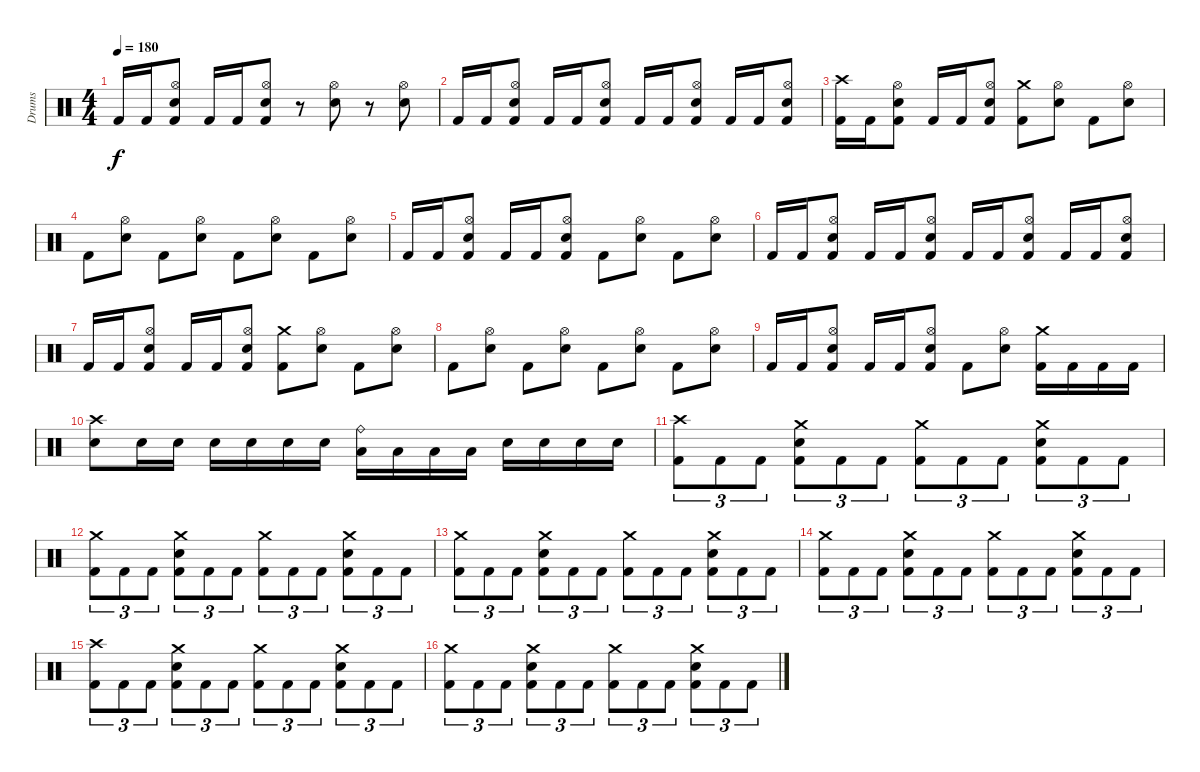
\track ("Drums" "Drums") {instrument percussion}
\staff {score}
\articulation defaults
\ts (4 4)
\tempo 180
\clef neutral
\ks c "Kick (hit) 2".16{dy f} "Kick (hit) 2".16
("Hi-Hat (open)" "Electric Snare (hit)" "Kick (hit) 2").8 "Kick (hit) 2".16 "Kick (hit) 2".16 ("Hi-Hat (open)" "Electric Snare (hit)" "Kick (hit) 2").8 r.8 ("Hi-Hat (open)" "Electric Snare (hit)").8 r.8 ("Hi-Hat (open)" "Electric Snare (hit)").8 |
"Kick (hit) 2".16 "Kick (hit) 2".16 ("Hi-Hat (open)" "Electric Snare (hit)" "Kick (hit) 2").8 "Kick (hit) 2".16 "Kick (hit) 2".16 ("Hi-Hat (open)" "Electric Snare (hit)" "Kick (hit) 2").8 "Kick (hit) 2".16 "Kick (hit) 2".16 ("Hi-Hat (open)" "Electric Snare (hit)" "Kick (hit) 2").8 "Kick (hit) 2".16 "Kick (hit) 2".16 ("Hi-Hat (open)" "Electric Snare (hit)" "Kick (hit) 2").8 |
("Crash high (hit)" "Kick (hit) 2").16 "Kick (hit) 2".16 ("Hi-Hat (open)" "Electric Snare (hit)" "Kick (hit) 2").8 "Kick (hit) 2".16 "Kick (hit) 2".16 ("Hi-Hat (open)" "Electric Snare (hit)" "Kick (hit) 2").8 ("Crash medium (hit)" "Kick (hit) 2").8 ("Hi-Hat (open)" "Electric Snare (hit)").8 "Kick (hit) 2".8 ("Hi-Hat (open)" "Electric Snare (hit)").8 |
"Kick (hit) 2".8 ("Hi-Hat (open)" "Electric Snare (hit)").8 "Kick (hit) 2".8 ("Hi-Hat (open)" "Electric Snare (hit)").8 "Kick (hit) 2".8 ("Hi-Hat (open)" "Electric Snare (hit)").8 "Kick (hit) 2".8 ("Hi-Hat (open)" "Electric Snare (hit)").8 |
"Kick (hit) 2".16 "Kick (hit) 2".16 ("Hi-Hat (open)" "Electric Snare (hit)" "Kick (hit) 2").8 "Kick (hit) 2".16 "Kick (hit) 2".16 ("Hi-Hat (open)" "Electric Snare (hit)" "Kick (hit) 2").8 "Kick (hit) 2".8 ("Hi-Hat (open)" "Electric Snare (hit)").8 "Kick (hit) 2".8 ("Hi-Hat (open)" "Electric Snare (hit)").8 |
"Kick (hit) 2".16 "Kick (hit) 2".16 ("Hi-Hat (open)" "Electric Snare (hit)" "Kick (hit) 2").8 "Kick (hit) 2".16 "Kick (hit) 2".16 ("Hi-Hat (open)" "Electric Snare (hit)" "Kick (hit) 2").8 "Kick (hit) 2".16 "Kick (hit) 2".16 ("Hi-Hat (open)" "Electric Snare (hit)" "Kick (hit) 2").8 "Kick (hit) 2".16 "Kick (hit) 2".16 ("Hi-Hat (open)" "Electric Snare (hit)" "Kick (hit) 2").8 |
"Kick (hit) 2".16 "Kick (hit) 2".16 ("Hi-Hat (open)" "Electric Snare (hit)" "Kick (hit) 2").8 "Kick (hit) 2".16 "Kick (hit) 2".16 ("Hi-Hat (open)" "Electric Snare (hit)" "Kick (hit) 2").8 ("Crash medium (hit)" "Kick (hit) 2").8 ("Hi-Hat (open)" "Electric Snare (hit)").8 "Kick (hit) 2".8 ("Hi-Hat (open)" "Electric Snare (hit)").8 |
"Kick (hit) 2".8 ("Hi-Hat (open)" "Electric Snare (hit)").8 "Kick (hit) 2".8 ("Hi-Hat (open)" "Electric Snare (hit)").8 "Kick (hit) 2".8 ("Hi-Hat (open)" "Electric Snare (hit)").8 "Kick (hit) 2".8 ("Hi-Hat (open)" "Electric Snare (hit)").8 |
"Kick (hit) 2".16 "Kick (hit) 2".16 ("Hi-Hat (open)" "Electric Snare (hit)" "Kick (hit) 2").8 "Kick (hit) 2".16 "Kick (hit) 2".16 ("Hi-Hat (open)" "Electric Snare (hit)" "Kick (hit) 2").8 "Kick (hit) 2".8 ("Hi-Hat (open)" "Electric Snare (hit)").8 ("Crash medium (hit)" "Kick (hit) 2").16 "Kick (hit) 2".16 "Kick (hit) 2".16 "Kick (hit) 2".16 |
("Crash high (hit)" "Electric Snare (hit)").8 "Electric Snare (hit)".16 "Electric Snare (hit)".16 "Electric Snare (hit)".16 "Electric Snare (hit)".16 "Electric Snare (hit)".16 "Electric Snare (hit)".16 ("Ride (bell)" "Low Tom (hit)").16 "Low Tom (hit)".16 "Low Tom (hit)".16 "Low Tom (hit)".16 "Electric Snare (hit)".16 "Electric Snare (hit)".16 "Electric Snare (hit)".16 "Electric Snare (hit)".16 |
("Crash high (hit)" "Kick (hit) 2").8{tu (3 2)} "Kick (hit) 2".8{tu (3 2)} "Kick (hit) 2".8{tu (3 2)} ("Crash medium (hit)" "Electric Snare (hit)" "Kick (hit) 2").8{tu (3 2)} "Kick (hit) 2".8{tu (3 2)} "Kick (hit) 2".8{tu (3 2)} ("Crash medium (hit)" "Kick (hit) 2").8{tu (3 2)} "Kick (hit) 2".8{tu (3 2)} "Kick (hit) 2".8{tu (3 2)} ("Crash medium (hit)" "Electric Snare (hit)" "Kick (hit) 2").8{tu (3 2)} "Kick (hit) 2".8{tu (3 2)} "Kick (hit) 2".8{tu (3 2)} |
("Crash medium (hit)" "Kick (hit) 2").8{tu (3 2)} "Kick (hit) 2".8{tu (3 2)} "Kick (hit) 2".8{tu (3 2)} ("Crash medium (hit)" "Electric Snare (hit)" "Kick (hit) 2").8{tu (3 2)} "Kick (hit) 2".8{tu (3 2)} "Kick (hit) 2".8{tu (3 2)} ("Crash medium (hit)" "Kick (hit) 2").8{tu (3 2)} "Kick (hit) 2".8{tu (3 2)} "Kick (hit) 2".8{tu (3 2)} ("Crash medium (hit)" "Electric Snare (hit)" "Kick (hit) 2").8{tu (3 2)} "Kick (hit) 2".8{tu (3 2)} "Kick (hit) 2".8{tu (3 2)} |
("Crash medium (hit)" "Kick (hit) 2").8{tu (3 2)} "Kick (hit) 2".8{tu (3 2)} "Kick (hit) 2".8{tu (3 2)} ("Crash medium (hit)" "Electric Snare (hit)" "Kick (hit) 2").8{tu (3 2)} "Kick (hit) 2".8{tu (3 2)} "Kick (hit) 2".8{tu (3 2)} ("Crash medium (hit)" "Kick (hit) 2").8{tu (3 2)} "Kick (hit) 2".8{tu (3 2)} "Kick (hit) 2".8{tu (3 2)} ("Crash medium (hit)" "Electric Snare (hit)" "Kick (hit) 2").8{tu (3 2)} "Kick (hit) 2".8{tu (3 2)} "Kick (hit) 2".8{tu (3 2)} |
("Crash medium (hit)" "Kick (hit) 2").8{tu (3 2)} "Kick (hit) 2".8{tu (3 2)} "Kick (hit) 2".8{tu (3 2)} ("Crash medium (hit)" "Electric Snare (hit)" "Kick (hit) 2").8{tu (3 2)} "Kick (hit) 2".8{tu (3 2)} "Kick (hit) 2".8{tu (3 2)} ("Crash medium (hit)" "Kick (hit) 2").8{tu (3 2)} "Kick (hit) 2".8{tu (3 2)} "Kick (hit) 2".8{tu (3 2)} ("Crash medium (hit)" "Electric Snare (hit)" "Kick (hit) 2").8{tu (3 2)} "Kick (hit) 2".8{tu (3 2)} "Kick (hit) 2".8{tu (3 2)} |
("Crash high (hit)" "Kick (hit) 2").8{tu (3 2)} "Kick (hit) 2".8{tu (3 2)} "Kick (hit) 2".8{tu (3 2)} ("Crash medium (hit)" "Electric Snare (hit)" "Kick (hit) 2").8{tu (3 2)} "Kick (hit) 2".8{tu (3 2)} "Kick (hit) 2".8{tu (3 2)} ("Crash medium (hit)" "Kick (hit) 2").8{tu (3 2)} "Kick (hit) 2".8{tu (3 2)} "Kick (hit) 2".8{tu (3 2)} ("Crash medium (hit)" "Electric Snare (hit)" "Kick (hit) 2").8{tu (3 2)} "Kick (hit) 2".8{tu (3 2)} "Kick (hit) 2".8{tu (3 2)} |
("Crash medium (hit)" "Kick (hit) 2").8{tu (3 2)} "Kick (hit) 2".8{tu (3 2)} "Kick (hit) 2".8{tu (3 2)} ("Crash medium (hit)" "Electric Snare (hit)" "Kick (hit) 2").8{tu (3 2)} "Kick (hit) 2".8{tu (3 2)} "Kick (hit) 2".8{tu (3 2)} ("Crash medium (hit)" "Kick (hit) 2").8{tu (3 2)} "Kick (hit) 2".8{tu (3 2)} "Kick (hit) 2".8{tu (3 2)} ("Crash medium (hit)" "Electric Snare (hit)" "Kick (hit) 2").8{tu (3 2)} "Kick (hit) 2".8{tu (3 2)} "Kick (hit) 2".8{tu (3 2)}
